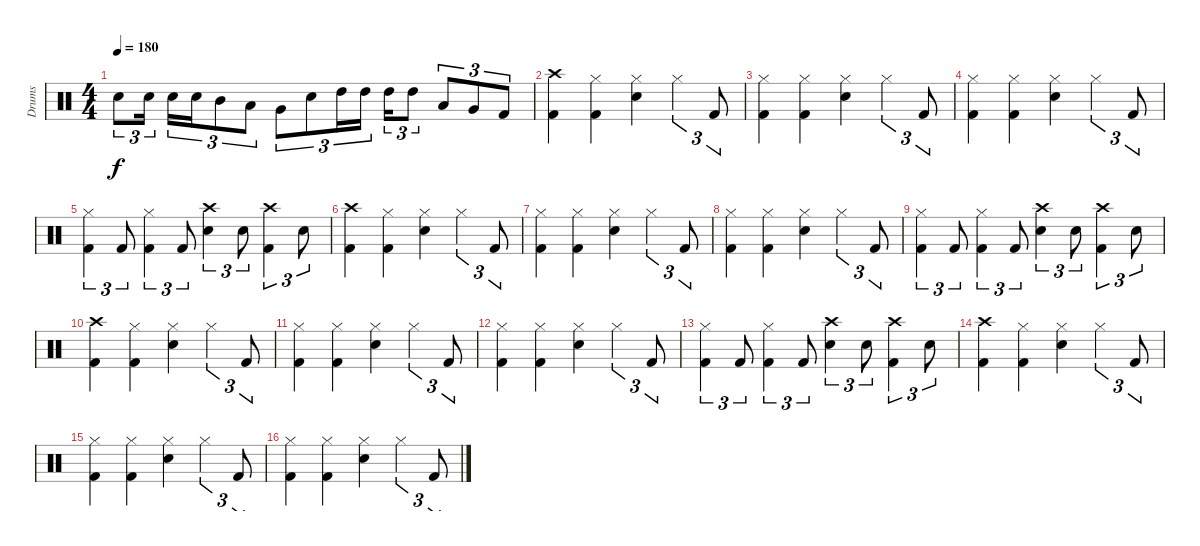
\track ("Drums" "Drums") {instrument percussion}
\staff {score}
\articulation defaults
\ts (4 4)
\tempo 180
\clef neutral
\ks c "Snare (hit) 2".8{tu (3 2) dy f} "Snare (hit) 2".16{tu (3 2)} "Snare (hit) 2".16{tu (3 2)} "Snare (hit) 2".16{tu (3 2)} "Mid Tom (hit)".8{tu (3 2)} "Low Tom (hit)".8{tu (3 2)} "Very Low Tom (hit)".8{tu (3 2)} "Snare (hit) 2".8{tu (3 2)} "High Tom (hit)".16{tu (3 2)} "High Tom (hit)".16{tu (3 2)} "High Tom (hit)".16{tu (3 2)} "High Tom (hit)".8{tu (3 2)} "Low Tom (hit)".8{tu (3 2)} "Very Low Tom (hit)".8{tu (3 2)} "Kick (hit) 2".8{tu (3 2)}
|
("Crash high (hit)" "Kick (hit) 2").4 ("Hi-Hat (closed)" "Kick (hit) 2").4 ("Hi-Hat (closed)" "Snare (hit) 2").4 "Hi-Hat (closed)".4{tu (3 2)} "Kick (hit) 2".8{tu (3 2)} |
("Hi-Hat (closed)" "Kick (hit) 2").4 ("Hi-Hat (closed)" "Kick (hit) 2").4 ("Hi-Hat (closed)" "Snare (hit) 2").4 "Hi-Hat (closed)".4{tu (3 2)} "Kick (hit) 2".8{tu (3 2)} |
("Hi-Hat (closed)" "Kick (hit) 2").4 ("Hi-Hat (closed)" "Kick (hit) 2").4 ("Hi-Hat (closed)" "Snare (hit) 2").4 "Hi-Hat (closed)".4{tu (3 2)} "Kick (hit) 2".8{tu (3 2)} |
("Hi-Hat (closed)" "Kick (hit) 2").4{tu (3 2)} "Kick (hit) 2".8{tu (3 2)} ("Hi-Hat (closed)" "Kick (hit) 2").4{tu (3 2)} "Kick (hit) 2".8{tu (3 2)} ("Crash high (hit)" "Snare (hit) 2").4{tu (3 2)} "Snare (hit) 2".8{tu (3 2)} ("Crash high (hit)" "Kick (hit) 2").4{tu (3 2)} "Snare (hit) 2".8{tu (3 2)} |
("Crash high (hit)" "Kick (hit) 2").4 ("Hi-Hat (closed)" "Kick (hit) 2").4 ("Hi-Hat (closed)" "Snare (hit) 2").4 "Hi-Hat (closed)".4{tu (3 2)} "Kick (hit) 2".8{tu (3 2)} |
("Hi-Hat (closed)" "Kick (hit) 2").4 ("Hi-Hat (closed)" "Kick (hit) 2").4 ("Hi-Hat (closed)" "Snare (hit) 2").4 "Hi-Hat (closed)".4{tu (3 2)} "Kick (hit) 2".8{tu (3 2)} |
("Hi-Hat (closed)" "Kick (hit) 2").4 ("Hi-Hat (closed)" "Kick (hit) 2").4 ("Hi-Hat (closed)" "Snare (hit) 2").4 "Hi-Hat (closed)".4{tu (3 2)} "Kick (hit) 2".8{tu (3 2)} |
("Hi-Hat (closed)" "Kick (hit) 2").4{tu (3 2)} "Kick (hit) 2".8{tu (3 2)} ("Hi-Hat (closed)" "Kick (hit) 2").4{tu (3 2)} "Kick (hit) 2".8{tu (3 2)} ("Crash high (hit)" "Snare (hit) 2").4{tu (3 2)} "Snare (hit) 2".8{tu (3 2)} ("Crash high (hit)" "Kick (hit) 2").4{tu (3 2)} "Snare (hit) 2".8{tu (3 2)} |
("Crash high (hit)" "Kick (hit) 2").4 ("Hi-Hat (closed)" "Kick (hit) 2").4 ("Hi-Hat (closed)" "Snare (hit) 2").4 "Hi-Hat (closed)".4{tu (3 2)} "Kick (hit) 2".8{tu (3 2)} |
("Hi-Hat (closed)" "Kick (hit) 2").4 ("Hi-Hat (closed)" "Kick (hit) 2").4 ("Hi-Hat (closed)" "Snare (hit) 2").4 "Hi-Hat (closed)".4{tu (3 2)} "Kick (hit) 2".8{tu (3 2)} |
("Hi-Hat (closed)" "Kick (hit) 2").4 ("Hi-Hat (closed)" "Kick (hit) 2").4 ("Hi-Hat (closed)" "Snare (hit) 2").4 "Hi-Hat (closed)".4{tu (3 2)} "Kick (hit) 2".8{tu (3 2)} |
("Hi-Hat (closed)" "Kick (hit) 2").4{tu (3 2)} "Kick (hit) 2".8{tu (3 2)} ("Hi-Hat (closed)" "Kick (hit) 2").4{tu (3 2)} "Kick (hit) 2".8{tu (3 2)} ("Crash high (hit)" "Snare (hit) 2").4{tu (3 2)} "Snare (hit) 2".8{tu (3 2)} ("Crash high (hit)" "Kick (hit) 2").4{tu (3 2)} "Snare (hit) 2".8{tu (3 2)} |
("Crash high (hit)" "Kick (hit) 2").4 ("Hi-Hat (closed)" "Kick (hit) 2").4 ("Hi-Hat (closed)" "Snare (hit) 2").4 "Hi-Hat (closed)".4{tu (3 2)} "Kick (hit) 2".8{tu (3 2)} |
("Hi-Hat (closed)" "Kick (hit) 2").4 ("Hi-Hat (closed)" "Kick (hit) 2").4 ("Hi-Hat (closed)" "Snare (hit) 2").4 "Hi-Hat (closed)".4{tu (3 2)} "Kick (hit) 2".8{tu (3 2)} |
("Hi-Hat (closed)" "Kick (hit) 2").4 ("Hi-Hat (closed)" "Kick (hit) 2").4 ("Hi-Hat (closed)" "Snare (hit) 2").4 "Hi-Hat (closed)".4{tu (3 2)} "Kick (hit) 2".8{tu (3 2)}
